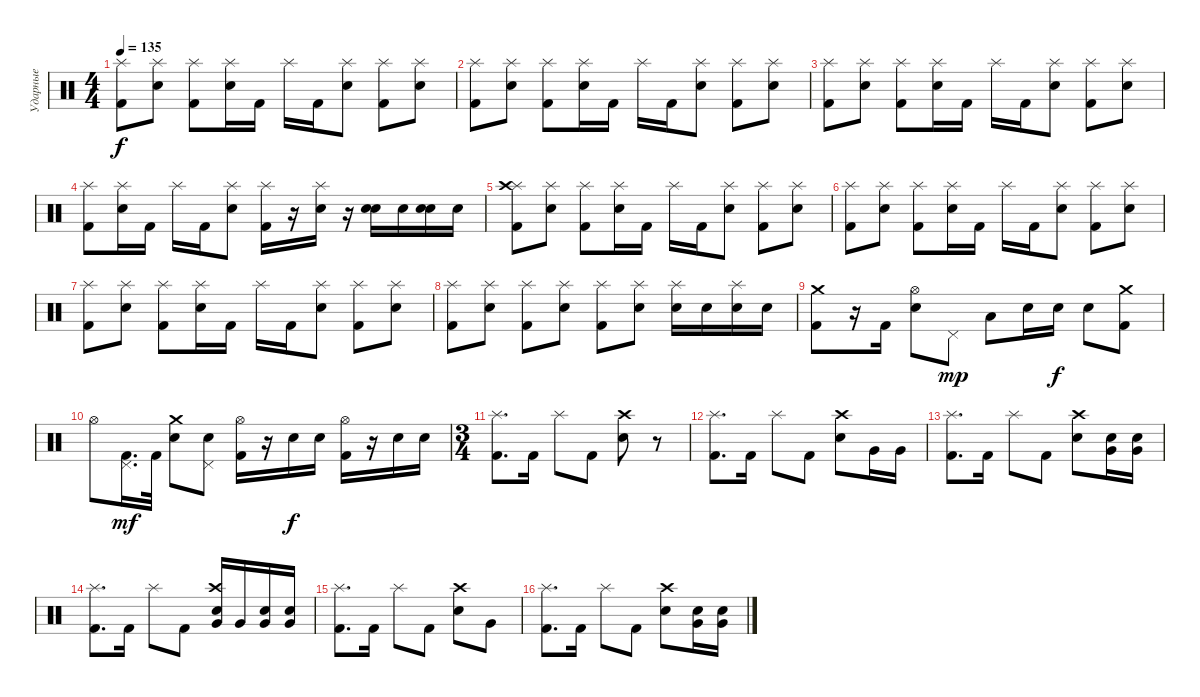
\track ("Ударные" "Ударные") {instrument percussion}
\staff {score}
\articulation defaults
\ts (4 4)
\tempo 135
\clef neutral
\ks c
("Splash (hit)" "Kick (hit) 2").8{dy f} ("Splash (hit)" "Electric Snare (hit)").8 ("Splash (hit)" "Kick (hit) 2").8 ("Splash (hit)" "Electric Snare (hit)").16 "Kick (hit) 2".16 "Splash (hit)".16 "Kick (hit) 2".16 ("Splash (hit)" "Electric Snare (hit)").8 ("Splash (hit)" "Kick (hit) 2").8 ("Splash (hit)" "Electric Snare (hit)").8 |
("Splash (hit)" "Kick (hit) 2").8 ("Splash (hit)" "Electric Snare (hit)").8 ("Splash (hit)" "Kick (hit) 2").8 ("Splash (hit)" "Electric Snare (hit)").16 "Kick (hit) 2".16 "Splash (hit)".16 "Kick (hit) 2".16 ("Splash (hit)" "Electric Snare (hit)").8 ("Splash (hit)" "Kick (hit) 2").8 ("Splash (hit)" "Electric Snare (hit)").8 |
("Splash (hit)" "Kick (hit) 2").8 ("Splash (hit)" "Electric Snare (hit)").8 ("Splash (hit)" "Kick (hit) 2").8 ("Splash (hit)" "Electric Snare (hit)").16 "Kick (hit) 2".16 "Splash (hit)".16 "Kick (hit) 2".16 ("Splash (hit)" "Electric Snare (hit)").8 ("Splash (hit)" "Kick (hit) 2").8 ("Splash (hit)" "Electric Snare (hit)").8 |
("Splash (hit)" "Kick (hit) 2").8 ("Splash (hit)" "Electric Snare (hit)").16 "Kick (hit) 2".16 "Splash (hit)".16 "Kick (hit) 2".16 ("Splash (hit)" "Electric Snare (hit)").8 ("Splash (hit)" "Kick (hit) 2").16 r.16 ("Splash (hit)" "Electric Snare (hit)").16 r.16 ("Snare (hit) 2" "Electric Snare (hit)").16 "Snare (hit) 2".16 ("Snare (hit) 2" "Electric Snare (hit)").16 "Snare (hit) 2".16 |
("Splash (hit)" "Crash high (hit)" "Kick (hit) 2").8 ("Splash (hit)" "Electric Snare (hit)").8 ("Splash (hit)" "Kick (hit) 2").8 ("Splash (hit)" "Electric Snare (hit)").16 "Kick (hit) 2".16 "Splash (hit)".16 "Kick (hit) 2".16 ("Splash (hit)" "Electric Snare (hit)").8 ("Splash (hit)" "Kick (hit) 2").8 ("Splash (hit)" "Electric Snare (hit)").8 |
("Splash (hit)" "Kick (hit) 2").8 ("Splash (hit)" "Electric Snare (hit)").8 ("Splash (hit)" "Kick (hit) 2").8 ("Splash (hit)" "Electric Snare (hit)").16 "Kick (hit) 2".16 "Splash (hit)".16 "Kick (hit) 2".16 ("Splash (hit)" "Electric Snare (hit)").8 ("Splash (hit)" "Kick (hit) 2").8 ("Splash (hit)" "Electric Snare (hit)").8 |
("Splash (hit)" "Kick (hit) 2").8 ("Splash (hit)" "Electric Snare (hit)").8 ("Splash (hit)" "Kick (hit) 2").8 ("Splash (hit)" "Electric Snare (hit)").16 "Kick (hit) 2".16 "Splash (hit)".16 "Kick (hit) 2".16 ("Splash (hit)" "Electric Snare (hit)").8 ("Splash (hit)" "Kick (hit) 2").8 ("Splash (hit)" "Electric Snare (hit)").8 |
("Splash (hit)" "Kick (hit) 2").8 ("Splash (hit)" "Electric Snare (hit)").8 ("Splash (hit)" "Kick (hit) 2").8 ("Splash (hit)" "Electric Snare (hit)").8 ("Splash (hit)" "Kick (hit) 2").8 ("Splash (hit)" "Electric Snare (hit)").8 ("Splash (hit)" "Electric Snare (hit)").16 "Electric Snare (hit)".16 ("Splash (hit)" "Electric Snare (hit)").16 "Electric Snare (hit)".16 |
("Crash medium (hit)" "Kick (hit) 2").8 r.16 "Kick (hit) 2".16 ("Hi-Hat (open)" "Electric Snare (hit)").8 "Pedal Hi-Hat (hit)".8{dy mp} "Low Tom (hit)".8 "Electric Snare (hit)".16 "Electric Snare (hit)".16{dy f} "Electric Snare (hit)".8 ("Crash medium (hit)" "Kick (hit) 2").8 |
"Hi-Hat (open)".8 ("Pedal Hi-Hat (hit)" "Kick (hit) 2").16{d dy mf} "Kick (hit) 2".32 ("Crash medium (hit)" "Electric Snare (hit)").8 ("Pedal Hi-Hat (hit)" "Electric Snare (hit)").8 ("Hi-Hat (open)" "Kick (hit) 2").16 r.16 "Electric Snare (hit)".16{dy f} "Electric Snare (hit)".16 ("Hi-Hat (open)" "Kick (hit) 2").16 r.16 "Electric Snare (hit)".16 "Electric Snare (hit)".16 |
\ts (3 4)
("Splash (hit)" "Kick (hit) 2").8{d} "Kick (hit) 2".16 "Splash (hit)".8 "Kick (hit) 2".8 ("Crash high (hit)" "Electric Snare (hit)").8 r.8 |
("Splash (hit)" "Kick (hit) 2").8{d} "Kick (hit) 2".16 "Splash (hit)".8 "Kick (hit) 2".8 ("Crash high (hit)" "Electric Snare (hit)").8 "Very Low Tom (hit)".16 "Very Low Tom (hit)".16 |
("Splash (hit)" "Kick (hit) 2").8{d} "Kick (hit) 2".16 "Splash (hit)".8 "Kick (hit) 2".8 ("Crash high (hit)" "Electric Snare (hit)").8 ("Electric Snare (hit)" "Very Low Tom (hit)").16 ("Electric Snare (hit)" "Very Low Tom (hit)").16 |
("Splash (hit)" "Kick (hit) 2").8{d} "Kick (hit) 2".16 "Splash (hit)".8 "Kick (hit) 2".8 ("Crash high (hit)" "Electric Snare (hit)" "Very Low Tom (hit)").16 "Very Low Tom (hit)".16 ("Electric Snare (hit)" "Very Low Tom (hit)").16 ("Electric Snare (hit)" "Very Low Tom (hit)").16 |
("Splash (hit)" "Kick (hit) 2").8{d} "Kick (hit) 2".16 "Splash (hit)".8 "Kick (hit) 2".8 ("Crash high (hit)" "Electric Snare (hit)").8 "Very Low Tom (hit)".8 |
("Splash (hit)" "Kick (hit) 2").8{d} "Kick (hit) 2".16 "Splash (hit)".8 "Kick (hit) 2".8 ("Crash high (hit)" "Electric Snare (hit)").8 ("Electric Snare (hit)" "Very Low Tom (hit)").16 ("Electric Snare (hit)" "Very Low Tom (hit)").16
